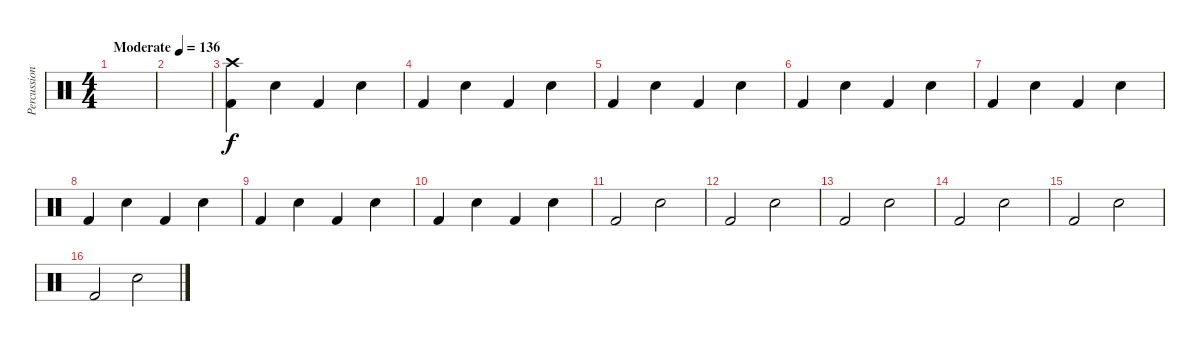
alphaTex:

\track ("Percussion" "Percussion") {instrument percussion}
\staff {score}
\articulation defaults
\ts (4 4)
\tempo (136 "Moderate")
\clef neutral
\ks c
|
|
("Crash high (hit)" "Kick (hit) 2").4 "Snare (hit) 2".4 "Kick (hit) 2".4 "Snare (hit) 2".4 |
"Kick (hit) 2".4 "Snare (hit) 2".4 "Kick (hit) 2".4 "Snare (hit) 2".4 |
"Kick (hit) 2".4 "Snare (hit) 2".4 "Kick (hit) 2".4 "Snare (hit) 2".4 |
"Kick (hit) 2".4 "Snare (hit) 2".4 "Kick (hit) 2".4 "Snare (hit) 2".4 |
"Kick (hit) 2".4 "Snare (hit) 2".4 "Kick (hit) 2".4 "Snare (hit) 2".4 |
"Kick (hit) 2".4 "Snare (hit) 2".4 "Kick (hit) 2".4 "Snare (hit) 2".4 |
"Kick (hit) 2".4 "Snare (hit) 2".4 "Kick (hit) 2".4 "Snare (hit) 2".4 |
"Kick (hit) 2".4 "Snare (hit) 2".4 "Kick (hit) 2".4 "Snare (hit) 2".4 |
"Kick (hit) 2".2 "Snare (hit) 2".2 |
"Kick (hit) 2".2 "Snare (hit) 2".2 |
"Kick (hit) 2".2 "Snare (hit) 2".2 |
"Kick (hit) 2".2 "Snare (hit) 2".2 |
"Kick (hit) 2".2 "Snare (hit) 2".2 |
"Kick (hit) 2".2 "Snare (hit) 2".2
